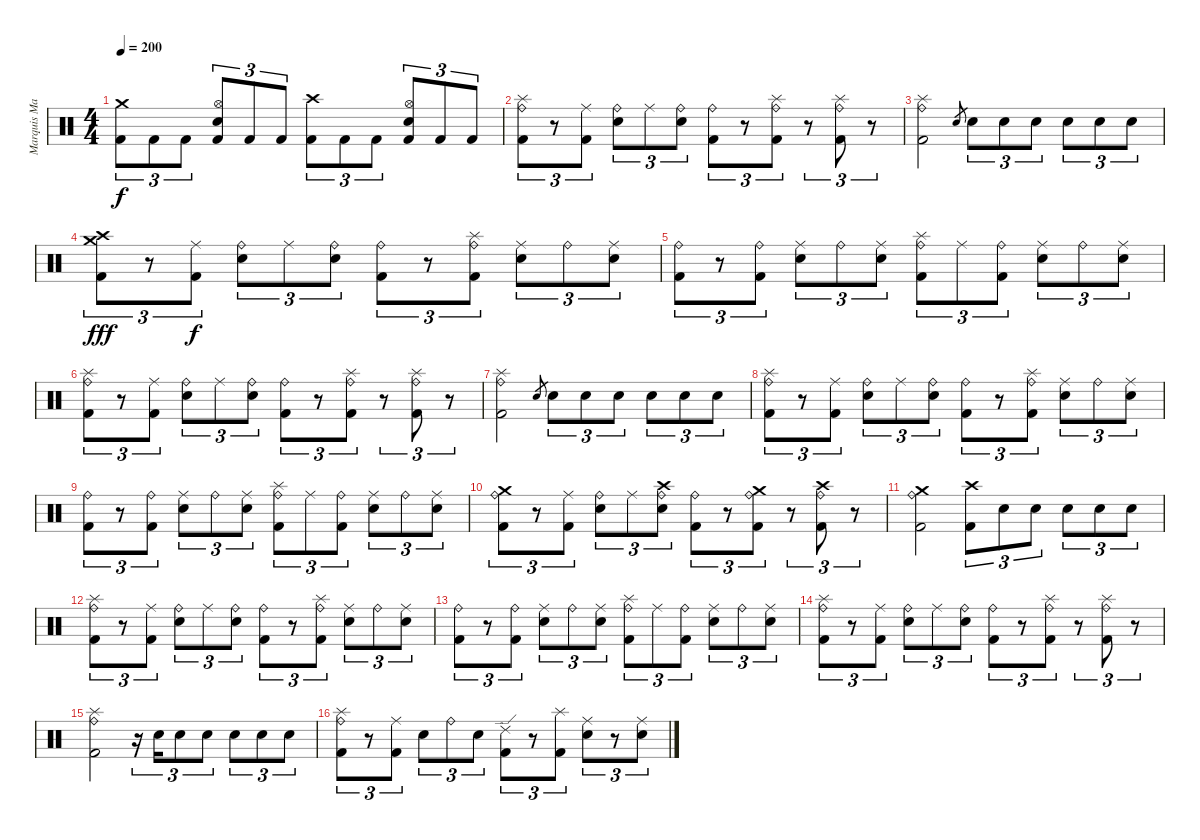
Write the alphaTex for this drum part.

\track ("Marquis Marky (DRUMS)" "Marquis Ma") {instrument percussion}
\staff {score}
\articulation defaults
\ts (4 4)
\tempo 200
\clef neutral
\ks c
("Crash medium (hit)" "Kick (hit) 2").8{tu (3 2) dy f} "Kick (hit) 2".8{tu (3 2)} "Kick (hit) 2".8{tu (3 2)} ("Hi-Hat (open)" "Snare (hit) 2" "Kick (hit) 2").8{tu (3 2)} "Kick (hit) 2".8{tu (3 2)} "Kick (hit) 2".8{tu (3 2)} ("Crash high (hit)" "Kick (hit) 2").8{tu (3 2)} "Kick (hit) 2".8{tu (3 2)} "Kick (hit) 2".8{tu (3 2)} ("Hi-Hat (open)" "Snare (hit) 2" "Kick (hit) 2").8{tu (3 2)} "Kick (hit) 2".8{tu (3 2)} "Kick (hit) 2".8{tu (3 2)} |
("Splash (hit)" "Ride (bell)" "Kick (hit) 2").8{tu (3 2)} r.8{tu (3 2)} ("Ride (middle)" "Kick (hit) 2").8{tu (3 2)} ("Ride (bell)" "Snare (hit) 2").8{tu (3 2)} "Ride (middle)".8{tu (3 2)} ("Ride (bell)" "Snare (hit) 2").8{tu (3 2)} ("Ride (bell)" "Kick (hit) 2").8{tu (3 2)} r.8{tu (3 2)} ("Splash (hit)" "Ride (bell)" "Kick (hit) 2").8{tu (3 2)} r.8{tu (3 2)} ("Splash (hit)" "Ride (bell)" "Kick (hit) 2").8{tu (3 2)} r.8{tu (3 2)} |
("Splash (hit)" "Ride (bell)" "Kick (hit) 2").2 "Snare (hit) 2".8{gr} "Snare (hit) 2".8{tu (3 2)} "Snare (hit) 2".8{tu (3 2)} "Snare (hit) 2".8{tu (3 2)} "Snare (hit) 2".8{tu (3 2)} "Snare (hit) 2".8{tu (3 2)} "Snare (hit) 2".8{tu (3 2)} |
("Crash medium (hit)" "Crash high (hit)" "Kick (hit) 2").8{tu (3 2) dy fff} r.8{tu (3 2)} ("Ride (middle)" "Kick (hit) 2").8{tu (3 2) dy f} ("Ride (bell)" "Snare (hit) 2").8{tu (3 2)} "Ride (middle)".8{tu (3 2)} ("Ride (bell)" "Snare (hit) 2").8{tu (3 2)} ("Ride (bell)" "Kick (hit) 2").8{tu (3 2)} r.8{tu (3 2)} ("Splash (hit)" "Ride (bell)" "Kick (hit) 2").8{tu (3 2)} ("Ride (middle)" "Snare (hit) 2").8{tu (3 2)} "Ride (bell)".8{tu (3 2)} ("Ride (middle)" "Snare (hit) 2").8{tu (3 2)} |
("Ride (bell)" "Kick (hit) 2").8{tu (3 2)} r.8{tu (3 2)} ("Ride (bell)" "Kick (hit) 2").8{tu (3 2)} ("Ride (middle)" "Snare (hit) 2").8{tu (3 2)} "Ride (bell)".8{tu (3 2)} ("Ride (middle)" "Snare (hit) 2").8{tu (3 2)} ("Splash (hit)" "Ride (bell)" "Kick (hit) 2").8{tu (3 2)} "Ride (middle)".8{tu (3 2)} ("Ride (bell)" "Kick (hit) 2").8{tu (3 2)} ("Ride (middle)" "Snare (hit) 2").8{tu (3 2)} "Ride (bell)".8{tu (3 2)} ("Ride (middle)" "Snare (hit) 2").8{tu (3 2)} |
("Splash (hit)" "Ride (bell)" "Kick (hit) 2").8{tu (3 2)} r.8{tu (3 2)} ("Ride (middle)" "Kick (hit) 2").8{tu (3 2)} ("Ride (bell)" "Snare (hit) 2").8{tu (3 2)} "Ride (middle)".8{tu (3 2)} ("Ride (bell)" "Snare (hit) 2").8{tu (3 2)} ("Ride (bell)" "Kick (hit) 2").8{tu (3 2)} r.8{tu (3 2)} ("Splash (hit)" "Ride (bell)" "Kick (hit) 2").8{tu (3 2)} r.8{tu (3 2)} ("Splash (hit)" "Ride (bell)" "Kick (hit) 2").8{tu (3 2)} r.8{tu (3 2)} |
("Splash (hit)" "Ride (bell)" "Kick (hit) 2").2 "Snare (hit) 2".8{gr} "Snare (hit) 2".8{tu (3 2)} "Snare (hit) 2".8{tu (3 2)} "Snare (hit) 2".8{tu (3 2)} "Snare (hit) 2".8{tu (3 2)} "Snare (hit) 2".8{tu (3 2)} "Snare (hit) 2".8{tu (3 2)} |
("Splash (hit)" "Ride (bell)" "Kick (hit) 2").8{tu (3 2)} r.8{tu (3 2)} ("Ride (middle)" "Kick (hit) 2").8{tu (3 2)} ("Ride (bell)" "Snare (hit) 2").8{tu (3 2)} "Ride (middle)".8{tu (3 2)} ("Ride (bell)" "Snare (hit) 2").8{tu (3 2)} ("Ride (bell)" "Kick (hit) 2").8{tu (3 2)} r.8{tu (3 2)} ("Splash (hit)" "Ride (bell)" "Kick (hit) 2").8{tu (3 2)} ("Ride (middle)" "Snare (hit) 2").8{tu (3 2)} "Ride (bell)".8{tu (3 2)} ("Ride (middle)" "Snare (hit) 2").8{tu (3 2)} |
("Ride (bell)" "Kick (hit) 2").8{tu (3 2)} r.8{tu (3 2)} ("Ride (bell)" "Kick (hit) 2").8{tu (3 2)} ("Ride (middle)" "Snare (hit) 2").8{tu (3 2)} "Ride (bell)".8{tu (3 2)} ("Ride (middle)" "Snare (hit) 2").8{tu (3 2)} ("Splash (hit)" "Ride (bell)" "Kick (hit) 2").8{tu (3 2)} "Ride (middle)".8{tu (3 2)} ("Ride (bell)" "Kick (hit) 2").8{tu (3 2)} ("Ride (middle)" "Snare (hit) 2").8{tu (3 2)} "Ride (bell)".8{tu (3 2)} ("Ride (middle)" "Snare (hit) 2").8{tu (3 2)} |
("Crash medium (hit)" "Ride (bell)" "Kick (hit) 2").8{tu (3 2)} r.8{tu (3 2)} ("Ride (middle)" "Kick (hit) 2").8{tu (3 2)} ("Ride (bell)" "Snare (hit) 2").8{tu (3 2)} "Ride (middle)".8{tu (3 2)} ("Crash high (hit)" "Ride (bell)" "Snare (hit) 2").8{tu (3 2)} ("Ride (bell)" "Kick (hit) 2").8{tu (3 2)} r.8{tu (3 2)} ("Crash medium (hit)" "Ride (bell)" "Kick (hit) 2").8{tu (3 2)} r.8{tu (3 2)} ("Crash high (hit)" "Ride (bell)" "Kick (hit) 2").8{tu (3 2)} r.8{tu (3 2)} |
("Crash medium (hit)" "Ride (bell)" "Kick (hit) 2").2 ("Crash high (hit)" "Kick (hit) 2").8{tu (3 2)} "Snare (hit) 2".8{tu (3 2)} "Snare (hit) 2".8{tu (3 2)} "Snare (hit) 2".8{tu (3 2)} "Snare (hit) 2".8{tu (3 2)} "Snare (hit) 2".8{tu (3 2)} |
("Splash (hit)" "Ride (bell)" "Kick (hit) 2").8{tu (3 2)} r.8{tu (3 2)} ("Ride (middle)" "Kick (hit) 2").8{tu (3 2)} ("Ride (bell)" "Snare (hit) 2").8{tu (3 2)} "Ride (middle)".8{tu (3 2)} ("Ride (bell)" "Snare (hit) 2").8{tu (3 2)} ("Ride (bell)" "Kick (hit) 2").8{tu (3 2)} r.8{tu (3 2)} ("Splash (hit)" "Ride (bell)" "Kick (hit) 2").8{tu (3 2)} ("Ride (middle)" "Snare (hit) 2").8{tu (3 2)} "Ride (bell)".8{tu (3 2)} ("Ride (middle)" "Snare (hit) 2").8{tu (3 2)} |
("Ride (bell)" "Kick (hit) 2").8{tu (3 2)} r.8{tu (3 2)} ("Ride (bell)" "Kick (hit) 2").8{tu (3 2)} ("Ride (middle)" "Snare (hit) 2").8{tu (3 2)} "Ride (bell)".8{tu (3 2)} ("Ride (middle)" "Snare (hit) 2").8{tu (3 2)} ("Splash (hit)" "Ride (bell)" "Kick (hit) 2").8{tu (3 2)} "Ride (middle)".8{tu (3 2)} ("Ride (bell)" "Kick (hit) 2").8{tu (3 2)} ("Ride (middle)" "Snare (hit) 2").8{tu (3 2)} "Ride (bell)".8{tu (3 2)} ("Ride (middle)" "Snare (hit) 2").8{tu (3 2)} |
("Splash (hit)" "Ride (bell)" "Kick (hit) 2").8{tu (3 2)} r.8{tu (3 2)} ("Ride (middle)" "Kick (hit) 2").8{tu (3 2)} ("Ride (bell)" "Snare (hit) 2").8{tu (3 2)} "Ride (middle)".8{tu (3 2)} ("Ride (bell)" "Snare (hit) 2").8{tu (3 2)} ("Ride (bell)" "Kick (hit) 2").8{tu (3 2)} r.8{tu (3 2)} ("Splash (hit)" "Ride (bell)" "Kick (hit) 2").8{tu (3 2)} r.8{tu (3 2)} ("Splash (hit)" "Ride (bell)" "Kick (hit) 2").8{tu (3 2)} r.8{tu (3 2)} |
("Splash (hit)" "Ride (bell)" "Kick (hit) 2").2 r.16{tu (3 2)} "Snare (hit) 2".16{tu (3 2)} "Snare (hit) 2".8{tu (3 2)} "Snare (hit) 2".8{tu (3 2)} "Snare (hit) 2".8{tu (3 2)} "Snare (hit) 2".8{tu (3 2)} "Snare (hit) 2".8{tu (3 2)} |
("Splash (hit)" "Ride (bell)" "Kick (hit) 2").8{tu (3 2)} r.8{tu (3 2)} ("Ride (middle)" "Kick (hit) 2").8{tu (3 2)} "Snare (hit) 2".8{tu (3 2)} "Ride (bell)".8{tu (3 2)} "Snare (hit) 2".8{tu (3 2)} ("Ride (edge) 2" "Kick (hit) 2").8{tu (3 2)} r.8{tu (3 2)} ("Splash (hit)" "Kick (hit) 2").8{tu (3 2)} ("Ride (middle)" "Snare (hit) 2").8{tu (3 2)} r.8{tu (3 2)} ("Ride (middle)" "Snare (hit) 2").8{tu (3 2)}
